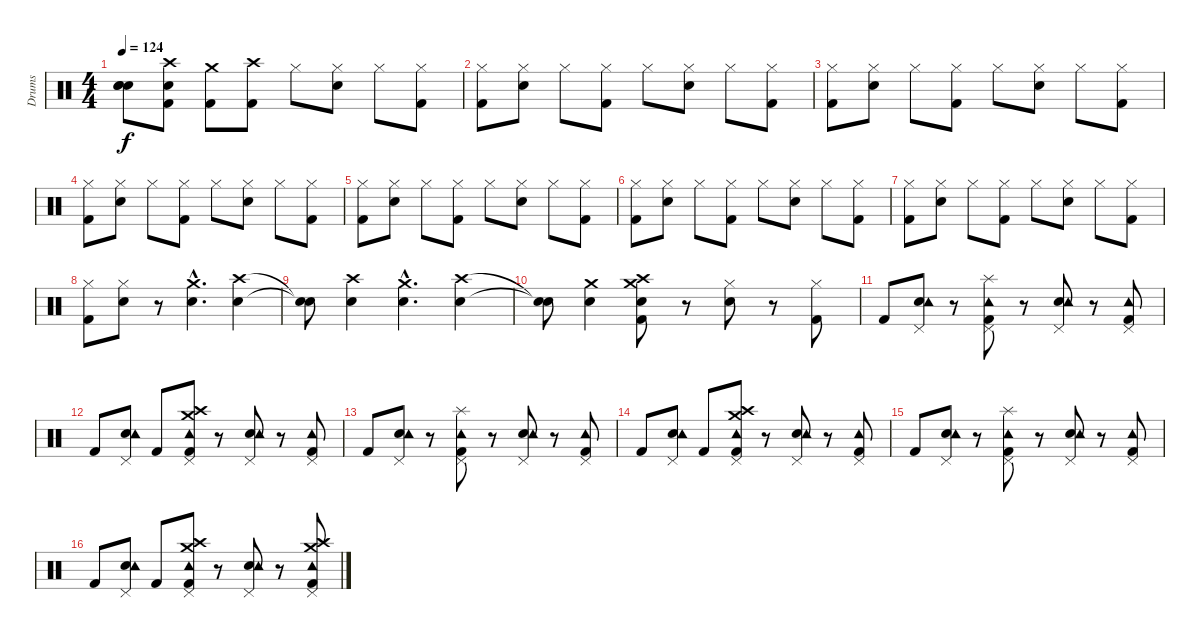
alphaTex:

\track ("Drums" "Drums") {instrument percussion}
\staff {score}
\articulation defaults
\ts (4 4)
\tempo 124
\clef neutral
\ks c
("Snare (hit)"{t} "Snare (hit)"{t} "Snare (hit)"{t}).8{dy f} ("Kick (hit) 2" "Crash high (hit)" "Snare (hit) 2").8 ("Kick (hit) 2" "Crash medium (hit)").8 ("Kick (hit) 2" "Crash high (hit)").8 "Hi-Hat (closed)".8 ("Snare (hit) 2" "Hi-Hat (closed)").8 "Hi-Hat (closed)".8 ("Kick (hit) 2" "Hi-Hat (closed)").8 |
("Kick (hit) 2" "Hi-Hat (closed)").8 ("Snare (hit) 2" "Hi-Hat (closed)").8 "Hi-Hat (closed)".8 ("Kick (hit) 2" "Hi-Hat (closed)").8 "Hi-Hat (closed)".8 ("Snare (hit) 2" "Hi-Hat (closed)").8 "Hi-Hat (closed)".8 ("Kick (hit) 2" "Hi-Hat (closed)").8 |
("Kick (hit) 2" "Hi-Hat (closed)").8 ("Snare (hit) 2" "Hi-Hat (closed)").8 "Hi-Hat (closed)".8 ("Kick (hit) 2" "Hi-Hat (closed)").8 "Hi-Hat (closed)".8 ("Snare (hit) 2" "Hi-Hat (closed)").8 "Hi-Hat (closed)".8 ("Kick (hit) 2" "Hi-Hat (closed)").8 |
("Kick (hit) 2" "Hi-Hat (closed)").8 ("Snare (hit) 2" "Hi-Hat (closed)").8 "Hi-Hat (closed)".8 ("Kick (hit) 2" "Hi-Hat (closed)").8 "Hi-Hat (closed)".8 ("Snare (hit) 2" "Hi-Hat (closed)").8 "Hi-Hat (closed)".8 ("Kick (hit) 2" "Hi-Hat (closed)").8 |
("Kick (hit) 2" "Hi-Hat (closed)").8 ("Snare (hit) 2" "Hi-Hat (closed)").8 "Hi-Hat (closed)".8 ("Kick (hit) 2" "Hi-Hat (closed)").8 "Hi-Hat (closed)".8 ("Snare (hit) 2" "Hi-Hat (closed)").8 "Hi-Hat (closed)".8 ("Kick (hit) 2" "Hi-Hat (closed)").8 |
("Kick (hit) 2" "Hi-Hat (closed)").8 ("Snare (hit) 2" "Hi-Hat (closed)").8 "Hi-Hat (closed)".8 ("Kick (hit) 2" "Hi-Hat (closed)").8 "Hi-Hat (closed)".8 ("Snare (hit) 2" "Hi-Hat (closed)").8 "Hi-Hat (closed)".8 ("Kick (hit) 2" "Hi-Hat (closed)").8 |
("Kick (hit) 2" "Hi-Hat (closed)").8 ("Snare (hit) 2" "Hi-Hat (closed)").8 "Hi-Hat (closed)".8 ("Kick (hit) 2" "Hi-Hat (closed)").8 "Hi-Hat (closed)".8 ("Snare (hit) 2" "Hi-Hat (closed)").8 "Hi-Hat (closed)".8 ("Kick (hit) 2" "Hi-Hat (closed)").8 |
("Kick (hit) 2" "Hi-Hat (closed)").8 ("Snare (hit) 2" "Hi-Hat (closed)").8 r.8 ("Snare (hit) 2"{hac} "Crash medium (hit)"{hac}).4{d} ("Snare (hit) 2" "Crash high (hit)").4 |
("Snare (hit)"{t} "Snare (hit)"{t}).8 ("Snare (hit) 2" "Crash high (hit)").4 ("Snare (hit) 2"{hac} "Crash medium (hit)"{hac}).4{d} ("Snare (hit) 2" "Crash high (hit)").4 |
("Snare (hit)"{t} "Snare (hit)"{t}).8 ("Snare (hit) 2" "Crash medium (hit)").4 ("Kick (hit) 2" "Snare (hit) 2" "Crash high (hit)" "Crash medium (hit)").8 r.8 ("Snare (hit) 2" "Hi-Hat (closed)").8 r.8 ("Kick (hit) 2" "Hi-Hat (closed)").8 |
"Kick (hit) 2".8 ("Snare (hit) 2" "Tambourine (hit)" "Pedal Hi-Hat (hit)").8 r.8 ("Kick (hit) 2" "Tambourine (hit)" "Pedal Hi-Hat (hit)" "Splash (hit)").8 r.8 ("Snare (hit) 2" "Tambourine (hit)" "Pedal Hi-Hat (hit)").8 r.8 ("Kick (hit) 2" "Tambourine (hit)" "Pedal Hi-Hat (hit)").8 |
"Kick (hit) 2".8 ("Snare (hit) 2" "Tambourine (hit)" "Pedal Hi-Hat (hit)").8 "Kick (hit) 2".8 ("Kick (hit) 2" "Tambourine (hit)" "Pedal Hi-Hat (hit)" "Crash high (hit)" "Crash medium (hit)").8 r.8 ("Snare (hit) 2" "Tambourine (hit)" "Pedal Hi-Hat (hit)").8 r.8 ("Kick (hit) 2" "Tambourine (hit)" "Pedal Hi-Hat (hit)").8 |
"Kick (hit) 2".8 ("Snare (hit) 2" "Tambourine (hit)" "Pedal Hi-Hat (hit)").8 r.8 ("Kick (hit) 2" "Tambourine (hit)" "Pedal Hi-Hat (hit)" "Splash (hit)").8 r.8 ("Snare (hit) 2" "Tambourine (hit)" "Pedal Hi-Hat (hit)").8 r.8 ("Kick (hit) 2" "Tambourine (hit)" "Pedal Hi-Hat (hit)").8 |
"Kick (hit) 2".8 ("Snare (hit) 2" "Tambourine (hit)" "Pedal Hi-Hat (hit)").8 "Kick (hit) 2".8 ("Kick (hit) 2" "Tambourine (hit)" "Pedal Hi-Hat (hit)" "Crash high (hit)" "Crash medium (hit)").8 r.8 ("Snare (hit) 2" "Tambourine (hit)" "Pedal Hi-Hat (hit)").8 r.8 ("Kick (hit) 2" "Tambourine (hit)" "Pedal Hi-Hat (hit)").8 |
"Kick (hit) 2".8 ("Snare (hit) 2" "Tambourine (hit)" "Pedal Hi-Hat (hit)").8 r.8 ("Kick (hit) 2" "Tambourine (hit)" "Pedal Hi-Hat (hit)" "Splash (hit)").8 r.8 ("Snare (hit) 2" "Tambourine (hit)" "Pedal Hi-Hat (hit)").8 r.8 ("Kick (hit) 2" "Tambourine (hit)" "Pedal Hi-Hat (hit)").8 |
"Kick (hit) 2".8 ("Snare (hit) 2" "Tambourine (hit)" "Pedal Hi-Hat (hit)").8 "Kick (hit) 2".8 ("Kick (hit) 2" "Tambourine (hit)" "Pedal Hi-Hat (hit)" "Crash high (hit)" "Crash medium (hit)").8 r.8 ("Snare (hit) 2" "Tambourine (hit)" "Pedal Hi-Hat (hit)").8 r.8 ("Kick (hit) 2" "Tambourine (hit)" "Pedal Hi-Hat (hit)" "Crash high (hit)" "Crash medium (hit)").8
